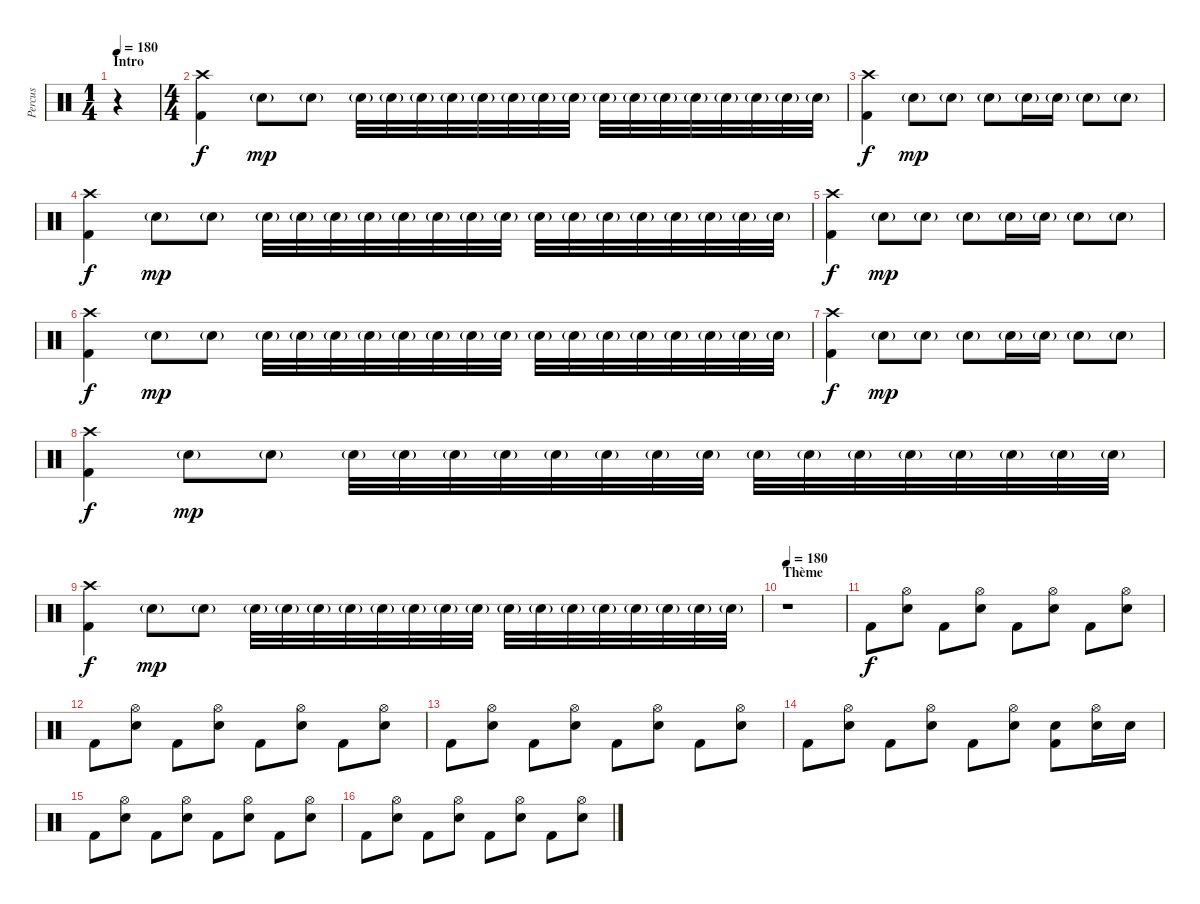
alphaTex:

\track ("Percus" "Percus") {instrument percussion}
\staff {score}
\articulation defaults
\ts (1 4)
\section ("" "Intro")
\tempo 180
\clef neutral
\ks c
r.4{dy f} |
\ts (4 4)
("Crash high (hit)" "Kick (hit) 2").4 "Electric Snare (hit)"{g}.8{dy mp} "Electric Snare (hit)"{g}.8 "Electric Snare (hit)"{g}.32 "Electric Snare (hit)"{g}.32 "Electric Snare (hit)"{g}.32 "Electric Snare (hit)"{g}.32 "Electric Snare (hit)"{g}.32 "Electric Snare (hit)"{g}.32 "Electric Snare (hit)"{g}.32 "Electric Snare (hit)"{g}.32 "Electric Snare (hit)"{g}.32 "Electric Snare (hit)"{g}.32 "Electric Snare (hit)"{g}.32 "Electric Snare (hit)"{g}.32 "Electric Snare (hit)"{g}.32 "Electric Snare (hit)"{g}.32 "Electric Snare (hit)"{g}.32 "Electric Snare (hit)"{g}.32 |
("Crash high (hit)" "Kick (hit) 2").4{dy f} "Electric Snare (hit)"{g}.8{dy mp} "Electric Snare (hit)"{g}.8 "Electric Snare (hit)"{g}.8 "Electric Snare (hit)"{g}.16 "Electric Snare (hit)"{g}.16 "Electric Snare (hit)"{g}.8 "Electric Snare (hit)"{g}.8 |
("Crash high (hit)" "Kick (hit) 2").4{dy f} "Electric Snare (hit)"{g}.8{dy mp} "Electric Snare (hit)"{g}.8 "Electric Snare (hit)"{g}.32 "Electric Snare (hit)"{g}.32 "Electric Snare (hit)"{g}.32 "Electric Snare (hit)"{g}.32 "Electric Snare (hit)"{g}.32 "Electric Snare (hit)"{g}.32 "Electric Snare (hit)"{g}.32 "Electric Snare (hit)"{g}.32 "Electric Snare (hit)"{g}.32 "Electric Snare (hit)"{g}.32 "Electric Snare (hit)"{g}.32 "Electric Snare (hit)"{g}.32 "Electric Snare (hit)"{g}.32 "Electric Snare (hit)"{g}.32 "Electric Snare (hit)"{g}.32 "Electric Snare (hit)"{g}.32 |
("Crash high (hit)" "Kick (hit) 2").4{dy f} "Electric Snare (hit)"{g}.8{dy mp} "Electric Snare (hit)"{g}.8 "Electric Snare (hit)"{g}.8 "Electric Snare (hit)"{g}.16 "Electric Snare (hit)"{g}.16 "Electric Snare (hit)"{g}.8 "Electric Snare (hit)"{g}.8 |
("Crash high (hit)" "Kick (hit) 2").4{dy f} "Electric Snare (hit)"{g}.8{dy mp} "Electric Snare (hit)"{g}.8 "Electric Snare (hit)"{g}.32 "Electric Snare (hit)"{g}.32 "Electric Snare (hit)"{g}.32 "Electric Snare (hit)"{g}.32 "Electric Snare (hit)"{g}.32 "Electric Snare (hit)"{g}.32 "Electric Snare (hit)"{g}.32 "Electric Snare (hit)"{g}.32 "Electric Snare (hit)"{g}.32 "Electric Snare (hit)"{g}.32 "Electric Snare (hit)"{g}.32 "Electric Snare (hit)"{g}.32 "Electric Snare (hit)"{g}.32 "Electric Snare (hit)"{g}.32 "Electric Snare (hit)"{g}.32 "Electric Snare (hit)"{g}.32 |
("Crash high (hit)" "Kick (hit) 2").4{dy f} "Electric Snare (hit)"{g}.8{dy mp} "Electric Snare (hit)"{g}.8 "Electric Snare (hit)"{g}.8 "Electric Snare (hit)"{g}.16 "Electric Snare (hit)"{g}.16 "Electric Snare (hit)"{g}.8 "Electric Snare (hit)"{g}.8 |
("Crash high (hit)" "Kick (hit) 2").4{dy f} "Electric Snare (hit)"{g}.8{dy mp} "Electric Snare (hit)"{g}.8 "Electric Snare (hit)"{g}.32 "Electric Snare (hit)"{g}.32 "Electric Snare (hit)"{g}.32 "Electric Snare (hit)"{g}.32 "Electric Snare (hit)"{g}.32 "Electric Snare (hit)"{g}.32 "Electric Snare (hit)"{g}.32 "Electric Snare (hit)"{g}.32 "Electric Snare (hit)"{g}.32 "Electric Snare (hit)"{g}.32 "Electric Snare (hit)"{g}.32 "Electric Snare (hit)"{g}.32 "Electric Snare (hit)"{g}.32 "Electric Snare (hit)"{g}.32 "Electric Snare (hit)"{g}.32 "Electric Snare (hit)"{g}.32 |
("Crash high (hit)" "Kick (hit) 2").4{dy f} "Electric Snare (hit)"{g}.8{dy mp} "Electric Snare (hit)"{g}.8 "Electric Snare (hit)"{g}.32 "Electric Snare (hit)"{g}.32 "Electric Snare (hit)"{g}.32 "Electric Snare (hit)"{g}.32 "Electric Snare (hit)"{g}.32 "Electric Snare (hit)"{g}.32 "Electric Snare (hit)"{g}.32 "Electric Snare (hit)"{g}.32 "Electric Snare (hit)"{g}.32 "Electric Snare (hit)"{g}.32 "Electric Snare (hit)"{g}.32 "Electric Snare (hit)"{g}.32 "Electric Snare (hit)"{g}.32 "Electric Snare (hit)"{g}.32 "Electric Snare (hit)"{g}.32 "Electric Snare (hit)"{g}.32 |
\section ("" "Thème")
\tempo 180
r.1 |
"Kick (hit) 2".8{dy f} ("Hi-Hat (open)" "Snare (hit) 2").8 "Kick (hit) 2".8 ("Hi-Hat (open)" "Snare (hit) 2").8 "Kick (hit) 2".8 ("Hi-Hat (open)" "Snare (hit) 2").8 "Kick (hit) 2".8 ("Hi-Hat (open)" "Snare (hit) 2").8 |
"Kick (hit) 2".8 ("Hi-Hat (open)" "Snare (hit) 2").8 "Kick (hit) 2".8 ("Hi-Hat (open)" "Snare (hit) 2").8 "Kick (hit) 2".8 ("Hi-Hat (open)" "Snare (hit) 2").8 "Kick (hit) 2".8 ("Hi-Hat (open)" "Snare (hit) 2").8 |
"Kick (hit) 2".8 ("Hi-Hat (open)" "Snare (hit) 2").8 "Kick (hit) 2".8 ("Hi-Hat (open)" "Snare (hit) 2").8 "Kick (hit) 2".8 ("Hi-Hat (open)" "Snare (hit) 2").8 "Kick (hit) 2".8 ("Hi-Hat (open)" "Snare (hit) 2").8 |
"Kick (hit) 2".8 ("Hi-Hat (open)" "Snare (hit) 2").8 "Kick (hit) 2".8 ("Hi-Hat (open)" "Snare (hit) 2").8 "Kick (hit) 2".8 ("Hi-Hat (open)" "Snare (hit) 2").8 ("Snare (hit) 2" "Kick (hit) 2").8 ("Hi-Hat (open)" "Snare (hit) 2").16 "Snare (hit) 2".16 |
"Kick (hit) 2".8 ("Hi-Hat (open)" "Snare (hit) 2").8 "Kick (hit) 2".8 ("Hi-Hat (open)" "Snare (hit) 2").8 "Kick (hit) 2".8 ("Hi-Hat (open)" "Snare (hit) 2").8 "Kick (hit) 2".8 ("Hi-Hat (open)" "Snare (hit) 2").8 |
"Kick (hit) 2".8 ("Hi-Hat (open)" "Snare (hit) 2").8 "Kick (hit) 2".8 ("Hi-Hat (open)" "Snare (hit) 2").8 "Kick (hit) 2".8 ("Hi-Hat (open)" "Snare (hit) 2").8 "Kick (hit) 2".8 ("Hi-Hat (open)" "Snare (hit) 2").8
